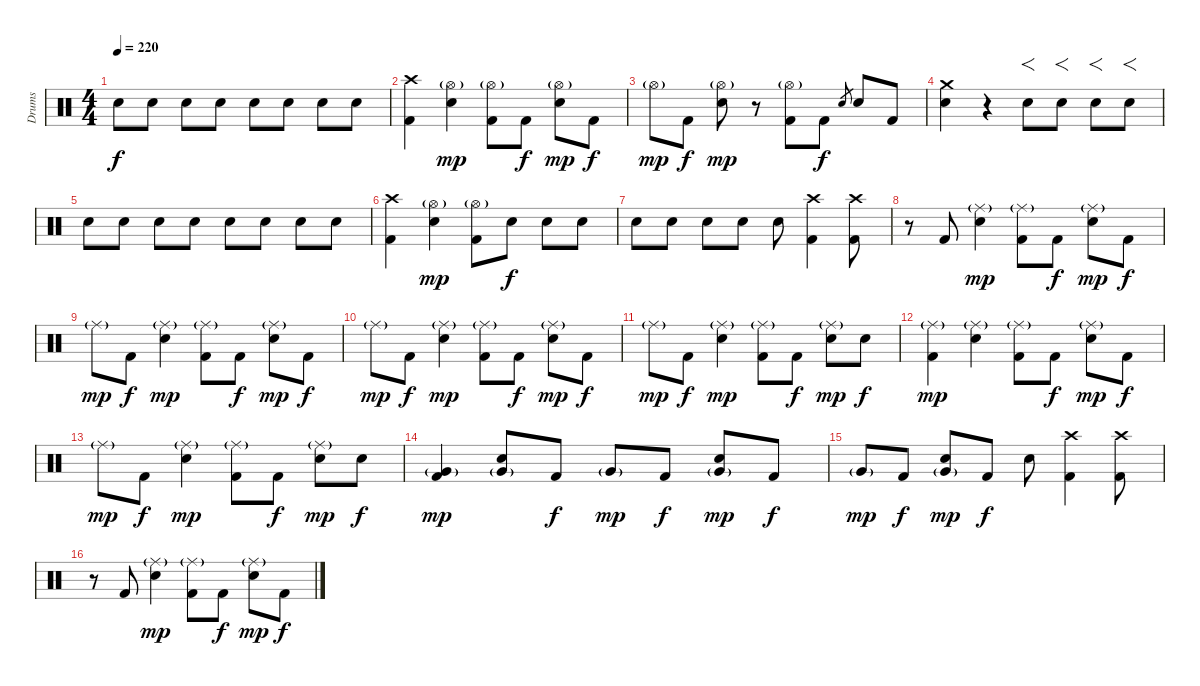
\track ("Drums" "Drums") {instrument percussion}
\staff {score}
\articulation defaults
\ts (4 4)
\tempo 220
\clef neutral
\ks c "Snare (hit) 2".8{dy f} "Snare (hit) 2".8 "Snare (hit) 2".8 "Snare (hit) 2".8 "Snare (hit) 2".8 "Snare (hit) 2".8 "Snare (hit) 2".8 "Snare (hit) 2".8
|
("Crash high (hit)" "Kick (hit) 2").4 ("Hi-Hat (open)"{g} "Snare (hit) 2").4{dy mp} ("Hi-Hat (open)"{g} "Kick (hit) 2").8 "Kick (hit) 2".8{dy f} ("Hi-Hat (open)"{g} "Snare (hit) 2").8{dy mp} "Kick (hit) 2".8{dy f} |
"Hi-Hat (open)"{g}.8{dy mp} "Kick (hit) 2".8{dy f} ("Hi-Hat (open)"{g} "Snare (hit) 2").8{dy mp} r.8 ("Hi-Hat (open)"{g} "Kick (hit) 2").8 "Kick (hit) 2".8{dy f} "Snare (hit) 2".8{gr} "Snare (hit) 2".8 "Kick (hit) 2".8 |
("Crash medium (hit)" "Snare (hit) 2").4 r.4 "Snare (hit) 2".8{f} "Snare (hit) 2".8{f} "Snare (hit) 2".8{f} "Snare (hit) 2".8{f} |
"Snare (hit) 2".8 "Snare (hit) 2".8 "Snare (hit) 2".8 "Snare (hit) 2".8 "Snare (hit) 2".8 "Snare (hit) 2".8 "Snare (hit) 2".8 "Snare (hit) 2".8 |
("Crash high (hit)" "Kick (hit) 2").4 ("Hi-Hat (open)"{g} "Snare (hit) 2").4{dy mp} ("Hi-Hat (open)"{g} "Kick (hit) 2").8 "Snare (hit) 2".8{dy f} "Snare (hit) 2".8 "Snare (hit) 2".8 |
"Snare (hit) 2".8 "Snare (hit) 2".8 "Snare (hit) 2".8 "Snare (hit) 2".8 "Snare (hit) 2".8 ("Crash high (hit)" "Kick (hit) 2").4 ("Crash high (hit)" "Kick (hit) 2").8 |
r.8 "Kick (hit) 2".8 ("Ride (middle)"{g} "Snare (hit) 2").4{dy mp} ("Ride (middle)"{g} "Kick (hit) 2").8 "Kick (hit) 2".8{dy f} ("Ride (middle)"{g} "Snare (hit) 2").8{dy mp} "Kick (hit) 2".8{dy f} |
"Ride (middle)"{g}.8{dy mp} "Kick (hit) 2".8{dy f} ("Ride (middle)"{g} "Snare (hit) 2").4{dy mp} ("Ride (middle)"{g} "Kick (hit) 2").8 "Kick (hit) 2".8{dy f} ("Ride (middle)"{g} "Snare (hit) 2").8{dy mp} "Kick (hit) 2".8{dy f} |
"Ride (middle)"{g}.8{dy mp} "Kick (hit) 2".8{dy f} ("Ride (middle)"{g} "Snare (hit) 2").4{dy mp} ("Ride (middle)"{g} "Kick (hit) 2").8 "Kick (hit) 2".8{dy f} ("Ride (middle)"{g} "Snare (hit) 2").8{dy mp} "Kick (hit) 2".8{dy f} |
"Ride (middle)"{g}.8{dy mp} "Kick (hit) 2".8{dy f} ("Ride (middle)"{g} "Snare (hit) 2").4{dy mp} ("Ride (middle)"{g} "Kick (hit) 2").8 "Kick (hit) 2".8{dy f} ("Ride (middle)"{g} "Snare (hit) 2").8{dy mp} "Snare (hit) 2".8{dy f} |
("Ride (middle)"{g} "Kick (hit) 2").4{dy mp} ("Ride (middle)"{g} "Snare (hit) 2").4 ("Ride (middle)"{g} "Kick (hit) 2").8 "Kick (hit) 2".8{dy f} ("Ride (middle)"{g} "Snare (hit) 2").8{dy mp} "Kick (hit) 2".8{dy f} |
"Ride (middle)"{g}.8{dy mp} "Kick (hit) 2".8{dy f} ("Ride (middle)"{g} "Snare (hit) 2").4{dy mp} ("Ride (middle)"{g} "Kick (hit) 2").8 "Kick (hit) 2".8{dy f} ("Ride (middle)"{g} "Snare (hit) 2").8{dy mp} "Snare (hit) 2".8{dy f} |
("Very Low Tom (hit)"{g} "Kick (hit) 2").4{dy mp} ("Snare (hit) 2" "Very Low Tom (hit)"{g}).8 "Kick (hit) 2".8{dy f} "Very Low Tom (hit)"{g}.8{dy mp} "Kick (hit) 2".8{dy f} ("Snare (hit) 2" "Very Low Tom (hit)"{g}).8{dy mp} "Kick (hit) 2".8{dy f} |
"Very Low Tom (hit)"{g}.8{dy mp} "Kick (hit) 2".8{dy f} ("Snare (hit) 2" "Very Low Tom (hit)"{g}).8{dy mp} "Kick (hit) 2".8{dy f} "Snare (hit) 2".8 ("Crash high (hit)" "Kick (hit) 2").4 ("Crash high (hit)" "Kick (hit) 2").8 |
r.8 "Kick (hit) 2".8 ("Ride (middle)"{g} "Snare (hit) 2").4{dy mp} ("Ride (middle)"{g} "Kick (hit) 2").8 "Kick (hit) 2".8{dy f} ("Ride (middle)"{g} "Snare (hit) 2").8{dy mp} "Kick (hit) 2".8{dy f}
